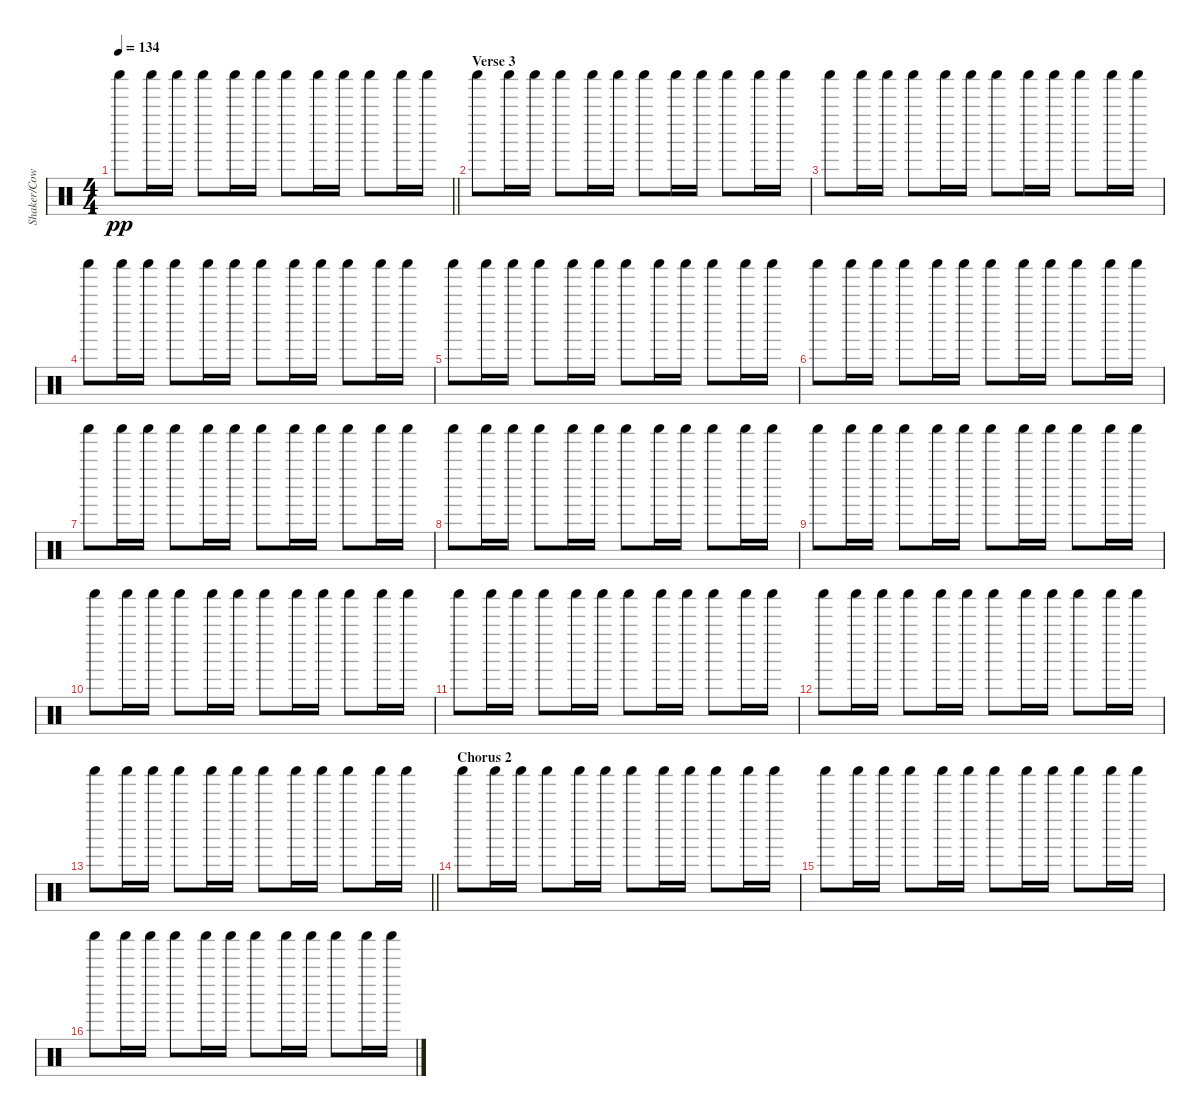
\track ("Shaker/Cowbell" "Shaker/Cow") {instrument percussion}
\staff {score}
\articulation defaults
\ts (4 4)
\tempo 134
\clef neutral
\barLineRight lightlight
\ks c "Shaker (hit)".8{dy pp} "Shaker (hit)".16 "Shaker (hit)".16 "Shaker (hit)".8 "Shaker (hit)".16 "Shaker (hit)".16 "Shaker (hit)".8 "Shaker (hit)".16 "Shaker (hit)".16 "Shaker (hit)".8 "Shaker (hit)".16 "Shaker (hit)".16
|
\section ("" "Verse 3")
"Shaker (hit)".8 "Shaker (hit)".16 "Shaker (hit)".16 "Shaker (hit)".8 "Shaker (hit)".16 "Shaker (hit)".16 "Shaker (hit)".8 "Shaker (hit)".16 "Shaker (hit)".16 "Shaker (hit)".8 "Shaker (hit)".16 "Shaker (hit)".16 |
"Shaker (hit)".8 "Shaker (hit)".16 "Shaker (hit)".16 "Shaker (hit)".8 "Shaker (hit)".16 "Shaker (hit)".16 "Shaker (hit)".8 "Shaker (hit)".16 "Shaker (hit)".16 "Shaker (hit)".8 "Shaker (hit)".16 "Shaker (hit)".16 |
"Shaker (hit)".8 "Shaker (hit)".16 "Shaker (hit)".16 "Shaker (hit)".8 "Shaker (hit)".16 "Shaker (hit)".16 "Shaker (hit)".8 "Shaker (hit)".16 "Shaker (hit)".16 "Shaker (hit)".8 "Shaker (hit)".16 "Shaker (hit)".16 |
"Shaker (hit)".8 "Shaker (hit)".16 "Shaker (hit)".16 "Shaker (hit)".8 "Shaker (hit)".16 "Shaker (hit)".16 "Shaker (hit)".8 "Shaker (hit)".16 "Shaker (hit)".16 "Shaker (hit)".8 "Shaker (hit)".16 "Shaker (hit)".16 |
"Shaker (hit)".8 "Shaker (hit)".16 "Shaker (hit)".16 "Shaker (hit)".8 "Shaker (hit)".16 "Shaker (hit)".16 "Shaker (hit)".8 "Shaker (hit)".16 "Shaker (hit)".16 "Shaker (hit)".8 "Shaker (hit)".16 "Shaker (hit)".16 |
"Shaker (hit)".8 "Shaker (hit)".16 "Shaker (hit)".16 "Shaker (hit)".8 "Shaker (hit)".16 "Shaker (hit)".16 "Shaker (hit)".8 "Shaker (hit)".16 "Shaker (hit)".16 "Shaker (hit)".8 "Shaker (hit)".16 "Shaker (hit)".16 |
"Shaker (hit)".8 "Shaker (hit)".16 "Shaker (hit)".16 "Shaker (hit)".8 "Shaker (hit)".16 "Shaker (hit)".16 "Shaker (hit)".8 "Shaker (hit)".16 "Shaker (hit)".16 "Shaker (hit)".8 "Shaker (hit)".16 "Shaker (hit)".16 |
"Shaker (hit)".8 "Shaker (hit)".16 "Shaker (hit)".16 "Shaker (hit)".8 "Shaker (hit)".16 "Shaker (hit)".16 "Shaker (hit)".8 "Shaker (hit)".16 "Shaker (hit)".16 "Shaker (hit)".8 "Shaker (hit)".16 "Shaker (hit)".16 |
"Shaker (hit)".8 "Shaker (hit)".16 "Shaker (hit)".16 "Shaker (hit)".8 "Shaker (hit)".16 "Shaker (hit)".16 "Shaker (hit)".8 "Shaker (hit)".16 "Shaker (hit)".16 "Shaker (hit)".8 "Shaker (hit)".16 "Shaker (hit)".16 |
"Shaker (hit)".8 "Shaker (hit)".16 "Shaker (hit)".16 "Shaker (hit)".8 "Shaker (hit)".16 "Shaker (hit)".16 "Shaker (hit)".8 "Shaker (hit)".16 "Shaker (hit)".16 "Shaker (hit)".8 "Shaker (hit)".16 "Shaker (hit)".16 |
"Shaker (hit)".8 "Shaker (hit)".16 "Shaker (hit)".16 "Shaker (hit)".8 "Shaker (hit)".16 "Shaker (hit)".16 "Shaker (hit)".8 "Shaker (hit)".16 "Shaker (hit)".16 "Shaker (hit)".8 "Shaker (hit)".16 "Shaker (hit)".16 |
\barLineRight lightlight "Shaker (hit)".8 "Shaker (hit)".16 "Shaker (hit)".16 "Shaker (hit)".8 "Shaker (hit)".16 "Shaker (hit)".16 "Shaker (hit)".8 "Shaker (hit)".16 "Shaker (hit)".16 "Shaker (hit)".8 "Shaker (hit)".16 "Shaker (hit)".16
|
\section ("" "Chorus 2")
"Shaker (hit)".8 "Shaker (hit)".16 "Shaker (hit)".16 "Shaker (hit)".8 "Shaker (hit)".16 "Shaker (hit)".16 "Shaker (hit)".8 "Shaker (hit)".16 "Shaker (hit)".16 "Shaker (hit)".8 "Shaker (hit)".16 "Shaker (hit)".16 |
"Shaker (hit)".8 "Shaker (hit)".16 "Shaker (hit)".16 "Shaker (hit)".8 "Shaker (hit)".16 "Shaker (hit)".16 "Shaker (hit)".8 "Shaker (hit)".16 "Shaker (hit)".16 "Shaker (hit)".8 "Shaker (hit)".16 "Shaker (hit)".16 |
"Shaker (hit)".8 "Shaker (hit)".16 "Shaker (hit)".16 "Shaker (hit)".8 "Shaker (hit)".16 "Shaker (hit)".16 "Shaker (hit)".8 "Shaker (hit)".16 "Shaker (hit)".16 "Shaker (hit)".8 "Shaker (hit)".16 "Shaker (hit)".16
